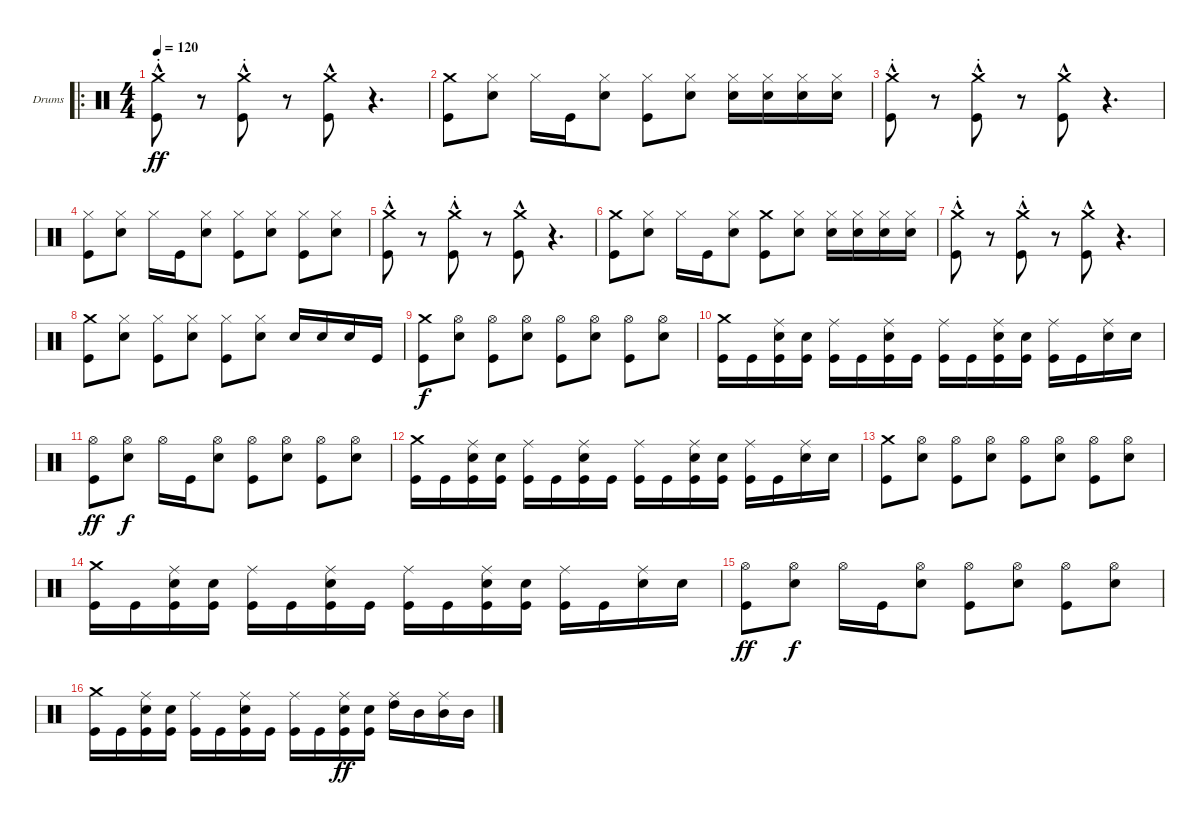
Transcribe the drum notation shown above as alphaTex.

\bracketExtendMode groupsimilarinstruments
\firstSystemTrackNameOrientation horizontal
\otherSystemsTrackNameOrientation horizontal
\track ("Drumkit" "Drums") {instrument percussion}
\staff {score}
\articulation defaults
\ro
\ts (4 4)
\tempo 120
\clef neutral
\ks c
("Kick (hit)"{hac} "Crash medium (hit)"{st}).8{dy ff} r.8 ("Kick (hit)"{hac} "Crash medium (hit)"{st}).8 r.8 ("Kick (hit)"{hac} "Crash medium (hit)").8 r.4{d} |
("Kick (hit)" "Crash medium (hit)").8 ("Snare (hit) 2" "Hi-Hat (closed)").8 "Hi-Hat (closed)".16 "Kick (hit)".16 ("Snare (hit) 2" "Hi-Hat (closed)").8 ("Kick (hit)" "Hi-Hat (closed)").8 ("Snare (hit) 2" "Hi-Hat (closed)").8 ("Snare (hit) 2" "Hi-Hat (closed)").16 ("Snare (hit) 2" "Hi-Hat (closed)").16 ("Snare (hit) 2" "Hi-Hat (closed)").16 ("Snare (hit) 2" "Hi-Hat (closed)").16 |
("Kick (hit)"{hac} "Crash medium (hit)"{st}).8 r.8 ("Kick (hit)"{hac} "Crash medium (hit)"{st}).8 r.8 ("Kick (hit)"{hac} "Crash medium (hit)").8 r.4{d} |
("Kick (hit)" "Hi-Hat (closed)").8 ("Snare (hit) 2" "Hi-Hat (closed)").8 "Hi-Hat (closed)".16 "Kick (hit)".16 ("Snare (hit) 2" "Hi-Hat (closed)").8 ("Kick (hit)" "Hi-Hat (closed)").8 ("Snare (hit) 2" "Hi-Hat (closed)").8 ("Kick (hit)" "Hi-Hat (closed)").8 ("Snare (hit) 2" "Hi-Hat (closed)").8 |
("Kick (hit)"{hac} "Crash medium (hit)"{st}).8 r.8 ("Kick (hit)"{hac} "Crash medium (hit)"{st}).8 r.8 ("Kick (hit)"{hac} "Crash medium (hit)").8 r.4{d} |
("Kick (hit)" "Crash medium (hit)").8 ("Snare (hit) 2" "Hi-Hat (closed)").8 "Hi-Hat (closed)".16 "Kick (hit)".16 ("Snare (hit) 2" "Hi-Hat (closed)").8 ("Kick (hit)" "Crash medium (hit)").8 ("Snare (hit) 2" "Hi-Hat (closed)").8 ("Snare (hit) 2" "Hi-Hat (closed)").16 ("Snare (hit) 2" "Hi-Hat (closed)").16 ("Snare (hit) 2" "Hi-Hat (closed)").16 ("Snare (hit) 2" "Hi-Hat (closed)").16 |
("Kick (hit)"{hac} "Crash medium (hit)"{st}).8 r.8 ("Kick (hit)"{hac} "Crash medium (hit)"{st}).8 r.8 ("Kick (hit)"{hac} "Crash medium (hit)").8 r.4{d} |
("Kick (hit)" "Crash medium (hit)").8 ("Snare (hit) 2" "Hi-Hat (closed)").8 ("Kick (hit)" "Hi-Hat (closed)").8 ("Snare (hit) 2" "Hi-Hat (closed)").8 ("Kick (hit)" "Hi-Hat (closed)").8 ("Snare (hit) 2" "Hi-Hat (closed)").8 "Snare (hit) 2".16 "Snare (hit) 2".16 "Snare (hit) 2".16 "Kick (hit)".16 |
("Kick (hit)" "Crash medium (hit)").8{dy f} ("Snare (hit) 2" "Hi-Hat (open)").8 ("Kick (hit)" "Hi-Hat (open)").8 ("Snare (hit) 2" "Hi-Hat (open)").8 ("Kick (hit)" "Hi-Hat (open)").8 ("Snare (hit) 2" "Hi-Hat (open)").8 ("Kick (hit)" "Hi-Hat (open)").8 ("Snare (hit) 2" "Hi-Hat (open)").8 |
("Crash medium (hit)" "Kick (hit)").16 "Kick (hit)".16 ("Ride (middle)" "Kick (hit)" "Snare (hit) 2").16 ("Kick (hit)" "Snare (hit) 2").16 ("Ride (middle)" "Kick (hit)").16 "Kick (hit)".16 ("Snare (hit) 2" "Ride (middle)" "Kick (hit)").16 "Kick (hit)".16 ("Ride (middle)" "Kick (hit)").16 "Kick (hit)".16 ("Snare (hit) 2" "Ride (middle)" "Kick (hit)").16 ("Kick (hit)" "Snare (hit) 2").16 ("Ride (middle)" "Kick (hit)").16 "Kick (hit)".16 ("Snare (hit) 2" "Ride (middle)").16 "Snare (hit) 2".16 |
("Kick (hit)" "Hi-Hat (open)").8{dy ff} ("Snare (hit) 2" "Hi-Hat (open)").8{dy f} "Hi-Hat (open)".16 "Kick (hit)".16 ("Snare (hit) 2" "Hi-Hat (open)").8 ("Kick (hit)" "Hi-Hat (open)").8 ("Snare (hit) 2" "Hi-Hat (open)").8 ("Kick (hit)" "Hi-Hat (open)").8 ("Snare (hit) 2" "Hi-Hat (open)").8 |
("Crash medium (hit)" "Kick (hit)").16 "Kick (hit)".16 ("Ride (middle)" "Kick (hit)" "Snare (hit) 2").16 ("Kick (hit)" "Snare (hit) 2").16 ("Ride (middle)" "Kick (hit)").16 "Kick (hit)".16 ("Snare (hit) 2" "Ride (middle)" "Kick (hit)").16 "Kick (hit)".16 ("Ride (middle)" "Kick (hit)").16 "Kick (hit)".16 ("Snare (hit) 2" "Ride (middle)" "Kick (hit)").16 ("Kick (hit)" "Snare (hit) 2").16 ("Ride (middle)" "Kick (hit)").16 "Kick (hit)".16 ("Snare (hit) 2" "Ride (middle)").16 "Snare (hit) 2".16 |
("Kick (hit)" "Crash medium (hit)").8 ("Snare (hit) 2" "Hi-Hat (open)").8 ("Kick (hit)" "Hi-Hat (open)").8 ("Snare (hit) 2" "Hi-Hat (open)").8 ("Kick (hit)" "Hi-Hat (open)").8 ("Snare (hit) 2" "Hi-Hat (open)").8 ("Kick (hit)" "Hi-Hat (open)").8 ("Snare (hit) 2" "Hi-Hat (open)").8 |
("Crash medium (hit)" "Kick (hit)").16 "Kick (hit)".16 ("Ride (middle)" "Kick (hit)" "Snare (hit) 2").16 ("Kick (hit)" "Snare (hit) 2").16 ("Ride (middle)" "Kick (hit)").16 "Kick (hit)".16 ("Snare (hit) 2" "Ride (middle)" "Kick (hit)").16 "Kick (hit)".16 ("Ride (middle)" "Kick (hit)").16 "Kick (hit)".16 ("Snare (hit) 2" "Ride (middle)" "Kick (hit)").16 ("Kick (hit)" "Snare (hit) 2").16 ("Ride (middle)" "Kick (hit)").16 "Kick (hit)".16 ("Snare (hit) 2" "Ride (middle)").16 "Snare (hit) 2".16 |
("Kick (hit)" "Hi-Hat (open)").8{dy ff} ("Snare (hit) 2" "Hi-Hat (open)").8{dy f} "Hi-Hat (open)".16 "Kick (hit)".16 ("Snare (hit) 2" "Hi-Hat (open)").8 ("Kick (hit)" "Hi-Hat (open)").8 ("Snare (hit) 2" "Hi-Hat (open)").8 ("Kick (hit)" "Hi-Hat (open)").8 ("Snare (hit) 2" "Hi-Hat (open)").8 |
("Crash medium (hit)" "Kick (hit)").16 "Kick (hit)".16 ("Ride (middle)" "Kick (hit)" "Snare (hit) 2").16 ("Kick (hit)" "Snare (hit) 2").16 ("Ride (middle)" "Kick (hit)").16 "Kick (hit)".16 ("Snare (hit) 2" "Ride (middle)" "Kick (hit)").16 "Kick (hit)".16 ("Ride (middle)" "Kick (hit)").16 "Kick (hit)".16 ("Snare (hit) 2" "Ride (middle)" "Kick (hit)").16{dy ff} ("Kick (hit)" "Snare (hit) 2").16 ("Ride (middle)" "High Tom (hit)").16 "Mid Tom (hit)".16 ("Ride (middle)" "Mid Tom (hit)").16 "Mid Tom (hit)".16
